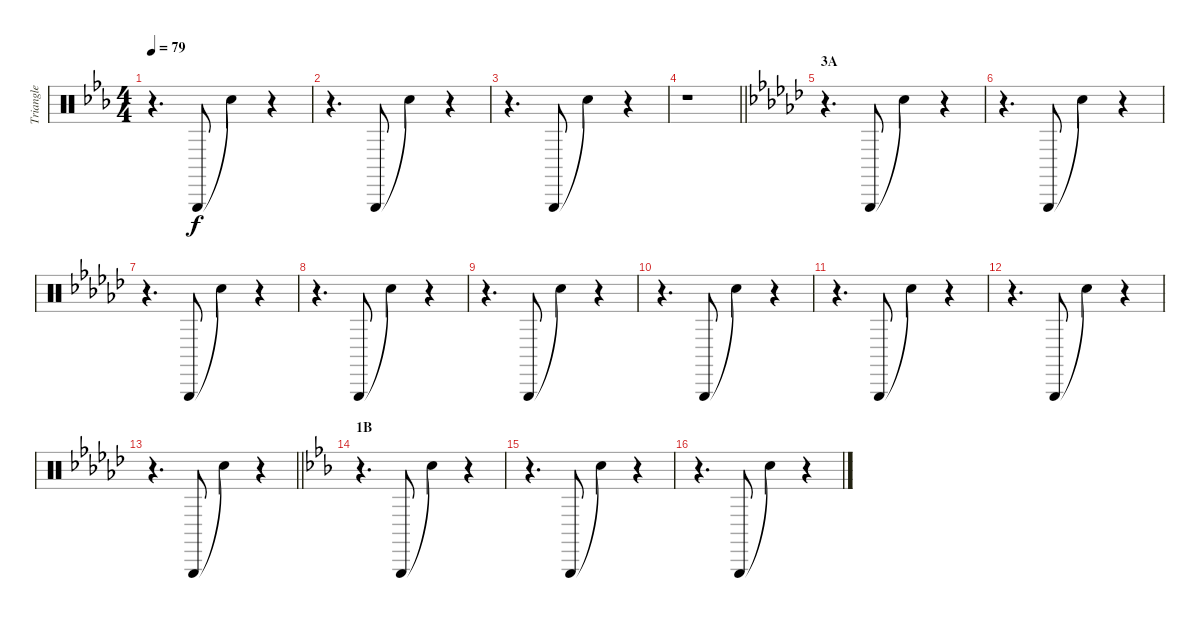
\track ("Triangle" "Triangle") {instrument percussion}
\staff {score}
\articulation defaults
\ts (4 4)
\tempo 79
\clef neutral
\ks eb
r.4{d dy f} "Triangle (hit)".8 "Snare (hit)"{t}.4 r.4 |
r.4{d} "Triangle (hit)".8 "Snare (hit)"{t}.4 r.4 |
r.4{d} "Triangle (hit)".8 "Snare (hit)"{t}.4 r.4 |
\barLineRight lightlight
r.1 |
\section ("" "3A")
\ks gb
r.4{d} "Triangle (hit)".8 "Snare (hit)"{t}.4 r.4 |
r.4{d} "Triangle (hit)".8 "Snare (hit)"{t}.4 r.4 |
r.4{d} "Triangle (hit)".8 "Snare (hit)"{t}.4 r.4 |
r.4{d} "Triangle (hit)".8 "Snare (hit)"{t}.4 r.4 |
r.4{d} "Triangle (hit)".8 "Snare (hit)"{t}.4 r.4 |
r.4{d} "Triangle (hit)".8 "Snare (hit)"{t}.4 r.4 |
r.4{d} "Triangle (hit)".8 "Snare (hit)"{t}.4 r.4 |
r.4{d} "Triangle (hit)".8 "Snare (hit)"{t}.4 r.4 |
\barLineRight lightlight
r.4{d} "Triangle (hit)".8 "Snare (hit)"{t}.4 r.4 |
\section ("" "1B")
\ks eb
r.4{d} "Triangle (hit)".8 "Snare (hit)"{t}.4 r.4 |
r.4{d} "Triangle (hit)".8 "Snare (hit)"{t}.4 r.4 |
r.4{d} "Triangle (hit)".8 "Snare (hit)"{t}.4 r.4
